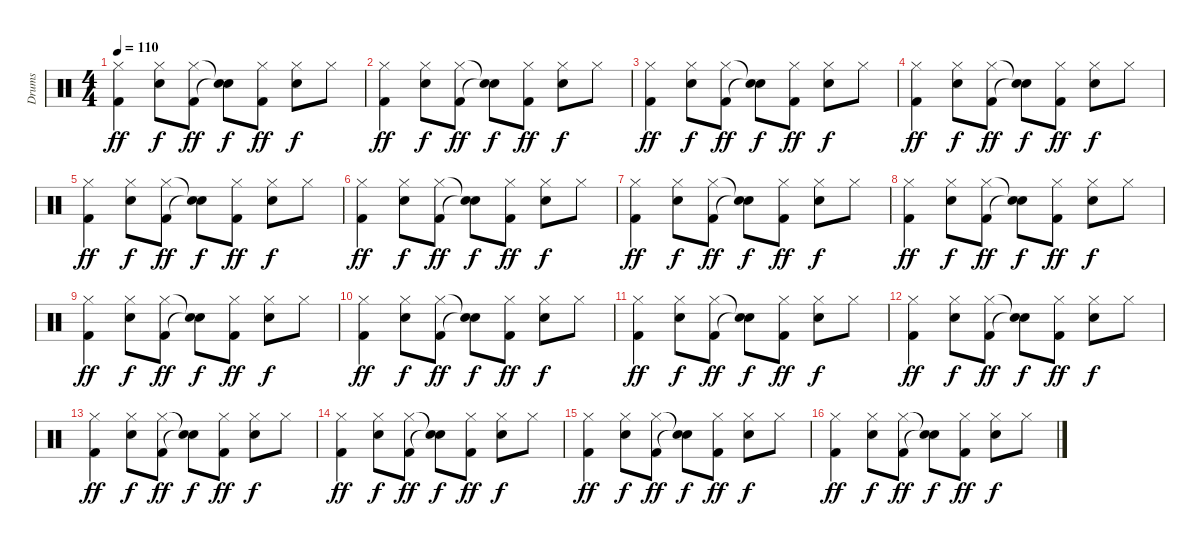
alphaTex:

\track ("Drums" "Drums") {instrument percussion}
\staff {score}
\articulation defaults
\ts (4 4)
\tempo 110
\clef neutral
\ks c
("Hi-Hat (closed)" "Kick (hit) 2").4{dy ff} ("Hi-Hat (closed)" "Electric Snare (hit)").8{dy f} ("Hi-Hat (closed)" "Kick (hit) 2").8{dy ff} ("Snare (hit)"{t} "Snare (hit)"{t}).8{dy f} ("Hi-Hat (closed)" "Kick (hit) 2").8{dy ff} ("Hi-Hat (closed)" "Electric Snare (hit)").8{dy f} "Hi-Hat (closed)".8 |
("Hi-Hat (closed)" "Kick (hit) 2").4{dy ff} ("Hi-Hat (closed)" "Electric Snare (hit)").8{dy f} ("Hi-Hat (closed)" "Kick (hit) 2").8{dy ff} ("Snare (hit)"{t} "Snare (hit)"{t}).8{dy f} ("Hi-Hat (closed)" "Kick (hit) 2").8{dy ff} ("Hi-Hat (closed)" "Electric Snare (hit)").8{dy f} "Hi-Hat (closed)".8 |
("Hi-Hat (closed)" "Kick (hit) 2").4{dy ff} ("Hi-Hat (closed)" "Electric Snare (hit)").8{dy f} ("Hi-Hat (closed)" "Kick (hit) 2").8{dy ff} ("Snare (hit)"{t} "Snare (hit)"{t}).8{dy f} ("Hi-Hat (closed)" "Kick (hit) 2").8{dy ff} ("Hi-Hat (closed)" "Electric Snare (hit)").8{dy f} "Hi-Hat (closed)".8 |
("Hi-Hat (closed)" "Kick (hit) 2").4{dy ff} ("Hi-Hat (closed)" "Electric Snare (hit)").8{dy f} ("Hi-Hat (closed)" "Kick (hit) 2").8{dy ff} ("Snare (hit)"{t} "Snare (hit)"{t}).8{dy f} ("Hi-Hat (closed)" "Kick (hit) 2").8{dy ff} ("Hi-Hat (closed)" "Electric Snare (hit)").8{dy f} "Hi-Hat (closed)".8 |
("Hi-Hat (closed)" "Kick (hit) 2").4{dy ff} ("Hi-Hat (closed)" "Electric Snare (hit)").8{dy f} ("Hi-Hat (closed)" "Kick (hit) 2").8{dy ff} ("Snare (hit)"{t} "Snare (hit)"{t}).8{dy f} ("Hi-Hat (closed)" "Kick (hit) 2").8{dy ff} ("Hi-Hat (closed)" "Electric Snare (hit)").8{dy f} "Hi-Hat (closed)".8 |
("Hi-Hat (closed)" "Kick (hit) 2").4{dy ff} ("Hi-Hat (closed)" "Electric Snare (hit)").8{dy f} ("Hi-Hat (closed)" "Kick (hit) 2").8{dy ff} ("Snare (hit)"{t} "Snare (hit)"{t}).8{dy f} ("Hi-Hat (closed)" "Kick (hit) 2").8{dy ff} ("Hi-Hat (closed)" "Electric Snare (hit)").8{dy f} "Hi-Hat (closed)".8 |
("Hi-Hat (closed)" "Kick (hit) 2").4{dy ff} ("Hi-Hat (closed)" "Electric Snare (hit)").8{dy f} ("Hi-Hat (closed)" "Kick (hit) 2").8{dy ff} ("Snare (hit)"{t} "Snare (hit)"{t}).8{dy f} ("Hi-Hat (closed)" "Kick (hit) 2").8{dy ff} ("Hi-Hat (closed)" "Electric Snare (hit)").8{dy f} "Hi-Hat (closed)".8 |
("Hi-Hat (closed)" "Kick (hit) 2").4{dy ff} ("Hi-Hat (closed)" "Electric Snare (hit)").8{dy f} ("Hi-Hat (closed)" "Kick (hit) 2").8{dy ff} ("Snare (hit)"{t} "Snare (hit)"{t}).8{dy f} ("Hi-Hat (closed)" "Kick (hit) 2").8{dy ff} ("Hi-Hat (closed)" "Electric Snare (hit)").8{dy f} "Hi-Hat (closed)".8 |
("Hi-Hat (closed)" "Kick (hit) 2").4{dy ff} ("Hi-Hat (closed)" "Electric Snare (hit)").8{dy f} ("Hi-Hat (closed)" "Kick (hit) 2").8{dy ff} ("Snare (hit)"{t} "Snare (hit)"{t}).8{dy f} ("Hi-Hat (closed)" "Kick (hit) 2").8{dy ff} ("Hi-Hat (closed)" "Electric Snare (hit)").8{dy f} "Hi-Hat (closed)".8 |
("Hi-Hat (closed)" "Kick (hit) 2").4{dy ff} ("Hi-Hat (closed)" "Electric Snare (hit)").8{dy f} ("Hi-Hat (closed)" "Kick (hit) 2").8{dy ff} ("Snare (hit)"{t} "Snare (hit)"{t}).8{dy f} ("Hi-Hat (closed)" "Kick (hit) 2").8{dy ff} ("Hi-Hat (closed)" "Electric Snare (hit)").8{dy f} "Hi-Hat (closed)".8 |
("Hi-Hat (closed)" "Kick (hit) 2").4{dy ff} ("Hi-Hat (closed)" "Electric Snare (hit)").8{dy f} ("Hi-Hat (closed)" "Kick (hit) 2").8{dy ff} ("Snare (hit)"{t} "Snare (hit)"{t}).8{dy f} ("Hi-Hat (closed)" "Kick (hit) 2").8{dy ff} ("Hi-Hat (closed)" "Electric Snare (hit)").8{dy f} "Hi-Hat (closed)".8 |
("Hi-Hat (closed)" "Kick (hit) 2").4{dy ff} ("Hi-Hat (closed)" "Electric Snare (hit)").8{dy f} ("Hi-Hat (closed)" "Kick (hit) 2").8{dy ff} ("Snare (hit)"{t} "Snare (hit)"{t}).8{dy f} ("Hi-Hat (closed)" "Kick (hit) 2").8{dy ff} ("Hi-Hat (closed)" "Electric Snare (hit)").8{dy f} "Hi-Hat (closed)".8 |
("Hi-Hat (closed)" "Kick (hit) 2").4{dy ff} ("Hi-Hat (closed)" "Electric Snare (hit)").8{dy f} ("Hi-Hat (closed)" "Kick (hit) 2").8{dy ff} ("Snare (hit)"{t} "Snare (hit)"{t}).8{dy f} ("Hi-Hat (closed)" "Kick (hit) 2").8{dy ff} ("Hi-Hat (closed)" "Electric Snare (hit)").8{dy f} "Hi-Hat (closed)".8 |
("Hi-Hat (closed)" "Kick (hit) 2").4{dy ff} ("Hi-Hat (closed)" "Electric Snare (hit)").8{dy f} ("Hi-Hat (closed)" "Kick (hit) 2").8{dy ff} ("Snare (hit)"{t} "Snare (hit)"{t}).8{dy f} ("Hi-Hat (closed)" "Kick (hit) 2").8{dy ff} ("Hi-Hat (closed)" "Electric Snare (hit)").8{dy f} "Hi-Hat (closed)".8 |
("Hi-Hat (closed)" "Kick (hit) 2").4{dy ff} ("Hi-Hat (closed)" "Electric Snare (hit)").8{dy f} ("Hi-Hat (closed)" "Kick (hit) 2").8{dy ff} ("Snare (hit)"{t} "Snare (hit)"{t}).8{dy f} ("Hi-Hat (closed)" "Kick (hit) 2").8{dy ff} ("Hi-Hat (closed)" "Electric Snare (hit)").8{dy f} "Hi-Hat (closed)".8 |
("Hi-Hat (closed)" "Kick (hit) 2").4{dy ff} ("Hi-Hat (closed)" "Electric Snare (hit)").8{dy f} ("Hi-Hat (closed)" "Kick (hit) 2").8{dy ff} ("Snare (hit)"{t} "Snare (hit)"{t}).8{dy f} ("Hi-Hat (closed)" "Kick (hit) 2").8{dy ff} ("Hi-Hat (closed)" "Electric Snare (hit)").8{dy f} "Hi-Hat (closed)".8
